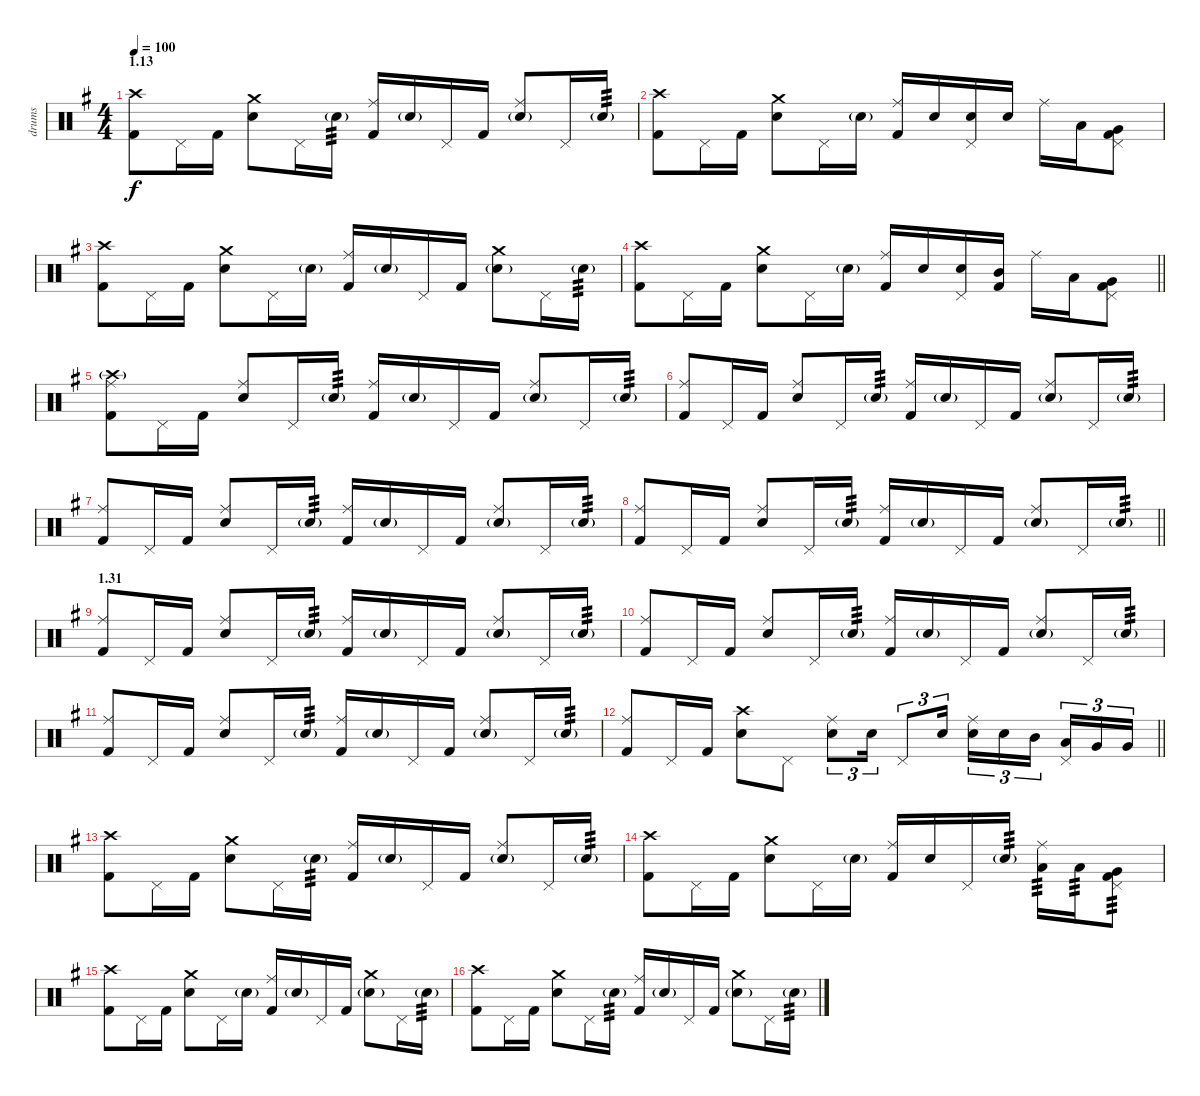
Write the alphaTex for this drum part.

\track ("drums" "drums") {instrument percussion}
\staff {score}
\articulation defaults
\ts (4 4)
\section ("" "1.13")
\tempo 100
\clef neutral
\ks g
("Crash high (hit)" "Kick (hit) 2").8{dy f} "Pedal Hi-Hat (hit)".16 "Kick (hit) 2".16 ("Crash medium (hit)" "Electric Snare (hit)").8 "Pedal Hi-Hat (hit)".16 "Electric Snare (hit)"{g}.16{tp 3} ("Ride (middle)" "Kick (hit) 2").16 "Electric Snare (hit)"{g}.16 "Pedal Hi-Hat (hit)".16 "Kick (hit) 2".16 ("Ride (middle)" "Electric Snare (hit)"{g}).8 "Pedal Hi-Hat (hit)".16 "Electric Snare (hit)"{g}.16{tp 3} |
("Crash high (hit)" "Kick (hit) 2").8 "Pedal Hi-Hat (hit)".16 "Kick (hit) 2".16 ("Crash medium (hit)" "Electric Snare (hit)").8 "Pedal Hi-Hat (hit)".16 "Electric Snare (hit)"{g}.16 ("Ride (middle)" "Kick (hit) 2").16 "Electric Snare (hit)".16 ("Pedal Hi-Hat (hit)" "Electric Snare (hit)").16 "Electric Snare (hit)".16 "Ride (middle)".16 "Low Tom (hit)".16 ("Pedal Hi-Hat (hit)" "Very Low Tom (hit)" "Kick (hit) 2").8 |
("Crash high (hit)" "Kick (hit) 2").8 "Pedal Hi-Hat (hit)".16 "Kick (hit) 2".16 ("Crash medium (hit)" "Electric Snare (hit)").8 "Pedal Hi-Hat (hit)".16 "Electric Snare (hit)"{g}.16 ("Ride (middle)" "Kick (hit) 2").16 "Electric Snare (hit)"{g}.16 "Pedal Hi-Hat (hit)".16 "Kick (hit) 2".16 ("Crash medium (hit)" "Electric Snare (hit)"{g}).8 "Pedal Hi-Hat (hit)".16 "Electric Snare (hit)"{g}.16{tp 3} |
\barLineRight lightlight
("Crash high (hit)" "Kick (hit) 2").8 "Pedal Hi-Hat (hit)".16 "Kick (hit) 2".16 ("Crash medium (hit)" "Electric Snare (hit)").8 "Pedal Hi-Hat (hit)".16 "Electric Snare (hit)"{g}.16 ("Ride (middle)" "Kick (hit) 2").16 "Electric Snare (hit)".16 ("Pedal Hi-Hat (hit)" "Electric Snare (hit)").16 ("Mid Tom (hit)" "Kick (hit) 2").16 "Ride (middle)".16 "Low Tom (hit)".16 ("Pedal Hi-Hat (hit)" "Very Low Tom (hit)" "Kick (hit) 2").8 |
("Ride (middle)" "Crash high (hit)"{g} "Kick (hit) 2").8 "Pedal Hi-Hat (hit)".16 "Kick (hit) 2".16 ("Ride (middle)" "Electric Snare (hit)").8 "Pedal Hi-Hat (hit)".16 "Electric Snare (hit)"{g}.16{tp 3} ("Ride (middle)" "Kick (hit) 2").16 "Electric Snare (hit)"{g}.16 "Pedal Hi-Hat (hit)".16 "Kick (hit) 2".16 ("Ride (middle)" "Electric Snare (hit)"{g}).8 "Pedal Hi-Hat (hit)".16 "Electric Snare (hit)"{g}.16{tp 3} |
("Ride (middle)" "Kick (hit) 2").8 "Pedal Hi-Hat (hit)".16 "Kick (hit) 2".16 ("Ride (middle)" "Electric Snare (hit)").8 "Pedal Hi-Hat (hit)".16 "Electric Snare (hit)"{g}.16{tp 3} ("Ride (middle)" "Kick (hit) 2").16 "Electric Snare (hit)"{g}.16 "Pedal Hi-Hat (hit)".16 "Kick (hit) 2".16 ("Ride (middle)" "Electric Snare (hit)"{g}).8 "Pedal Hi-Hat (hit)".16 "Electric Snare (hit)"{g}.16{tp 3} |
("Ride (middle)" "Kick (hit) 2").8 "Pedal Hi-Hat (hit)".16 "Kick (hit) 2".16 ("Ride (middle)" "Electric Snare (hit)").8 "Pedal Hi-Hat (hit)".16 "Electric Snare (hit)"{g}.16{tp 3} ("Ride (middle)" "Kick (hit) 2").16 "Electric Snare (hit)"{g}.16 "Pedal Hi-Hat (hit)".16 "Kick (hit) 2".16 ("Ride (middle)" "Electric Snare (hit)"{g}).8 "Pedal Hi-Hat (hit)".16 "Electric Snare (hit)"{g}.16{tp 3} |
\barLineRight lightlight
("Ride (middle)" "Kick (hit) 2").8 "Pedal Hi-Hat (hit)".16 "Kick (hit) 2".16 ("Ride (middle)" "Electric Snare (hit)").8 "Pedal Hi-Hat (hit)".16 "Electric Snare (hit)"{g}.16{tp 3} ("Ride (middle)" "Kick (hit) 2").16 "Electric Snare (hit)"{g}.16 "Pedal Hi-Hat (hit)".16 "Kick (hit) 2".16 ("Ride (middle)" "Electric Snare (hit)"{g}).8 "Pedal Hi-Hat (hit)".16 "Electric Snare (hit)"{g}.16{tp 3} |
\section ("" "1.31")
("Ride (middle)" "Kick (hit) 2").8 "Pedal Hi-Hat (hit)".16 "Kick (hit) 2".16 ("Ride (middle)" "Electric Snare (hit)").8 "Pedal Hi-Hat (hit)".16 "Electric Snare (hit)"{g}.16{tp 3} ("Ride (middle)" "Kick (hit) 2").16 "Electric Snare (hit)"{g}.16 "Pedal Hi-Hat (hit)".16 "Kick (hit) 2".16 ("Ride (middle)" "Electric Snare (hit)"{g}).8 "Pedal Hi-Hat (hit)".16 "Electric Snare (hit)"{g}.16{tp 3} |
("Ride (middle)" "Kick (hit) 2").8 "Pedal Hi-Hat (hit)".16 "Kick (hit) 2".16 ("Ride (middle)" "Electric Snare (hit)").8 "Pedal Hi-Hat (hit)".16 "Electric Snare (hit)"{g}.16{tp 3} ("Ride (middle)" "Kick (hit) 2").16 "Electric Snare (hit)"{g}.16 "Pedal Hi-Hat (hit)".16 "Kick (hit) 2".16 ("Ride (middle)" "Electric Snare (hit)"{g}).8 "Pedal Hi-Hat (hit)".16 "Electric Snare (hit)"{g}.16{tp 3} |
("Ride (middle)" "Kick (hit) 2").8 "Pedal Hi-Hat (hit)".16 "Kick (hit) 2".16 ("Ride (middle)" "Electric Snare (hit)").8 "Pedal Hi-Hat (hit)".16 "Electric Snare (hit)"{g}.16{tp 3} ("Ride (middle)" "Kick (hit) 2").16 "Electric Snare (hit)"{g}.16 "Pedal Hi-Hat (hit)".16 "Kick (hit) 2".16 ("Ride (middle)" "Electric Snare (hit)"{g}).8 "Pedal Hi-Hat (hit)".16 "Electric Snare (hit)"{g}.16{tp 3} |
\barLineRight lightlight
("Ride (middle)" "Kick (hit) 2").8 "Pedal Hi-Hat (hit)".16 "Kick (hit) 2".16 ("Crash high (hit)" "Electric Snare (hit)").8 "Pedal Hi-Hat (hit)".8 ("Ride (middle)" "Electric Snare (hit)").8{tu (3 2)} "Electric Snare (hit)".16{tu (3 2)} "Pedal Hi-Hat (hit)".8{tu (3 2)} "Electric Snare (hit)".16{tu (3 2)} ("Ride (middle)" "Electric Snare (hit)").16{tu (3 2)} "Electric Snare (hit)".16{tu (3 2)} "Mid Tom (hit)".16{tu (3 2) beam splitsecondary} ("Pedal Hi-Hat (hit)" "Low Tom (hit)").16{tu (3 2)} "Very Low Tom (hit)".16{tu (3 2)} "Very Low Tom (hit)".16{tu (3 2)} |
("Crash high (hit)" "Kick (hit) 2").8 "Pedal Hi-Hat (hit)".16 "Kick (hit) 2".16 ("Crash medium (hit)" "Electric Snare (hit)").8 "Pedal Hi-Hat (hit)".16 "Electric Snare (hit)"{g}.16{tp 3} ("Ride (middle)" "Kick (hit) 2").16 "Electric Snare (hit)"{g}.16 "Pedal Hi-Hat (hit)".16 "Kick (hit) 2".16 ("Ride (middle)" "Electric Snare (hit)"{g}).8 "Pedal Hi-Hat (hit)".16 "Electric Snare (hit)"{g}.16{tp 3} |
("Crash high (hit)" "Kick (hit) 2").8 "Pedal Hi-Hat (hit)".16 "Kick (hit) 2".16 ("Crash medium (hit)" "Electric Snare (hit)").8 "Pedal Hi-Hat (hit)".16 "Electric Snare (hit)"{g}.16 ("Ride (middle)" "Kick (hit) 2").16 "Electric Snare (hit)".16 "Pedal Hi-Hat (hit)".16 "Electric Snare (hit)"{g}.16{tp 3} ("Ride (middle)" "Low Tom (hit)").16{tp 3} "Low Tom (hit)".16{tp 3} ("Pedal Hi-Hat (hit)" "Very Low Tom (hit)" "Kick (hit) 2").8{tp 3} |
("Crash high (hit)" "Kick (hit) 2").8 "Pedal Hi-Hat (hit)".16 "Kick (hit) 2".16 ("Crash medium (hit)" "Electric Snare (hit)").8 "Pedal Hi-Hat (hit)".16 "Electric Snare (hit)"{g}.16 ("Ride (middle)" "Kick (hit) 2").16 "Electric Snare (hit)"{g}.16 "Pedal Hi-Hat (hit)".16 "Kick (hit) 2".16 ("Crash medium (hit)" "Electric Snare (hit)"{g}).8 "Pedal Hi-Hat (hit)".16 "Electric Snare (hit)"{g}.16{tp 3} |
("Crash high (hit)" "Kick (hit) 2").8 "Pedal Hi-Hat (hit)".16 "Kick (hit) 2".16 ("Crash medium (hit)" "Electric Snare (hit)").8 "Pedal Hi-Hat (hit)".16 "Electric Snare (hit)"{g}.16{tp 3} ("Ride (middle)" "Kick (hit) 2").16 "Electric Snare (hit)"{g}.16 "Pedal Hi-Hat (hit)".16 "Kick (hit) 2".16 ("Crash medium (hit)" "Electric Snare (hit)"{g}).8 "Pedal Hi-Hat (hit)".16 "Electric Snare (hit)"{g}.16{tp 3}
